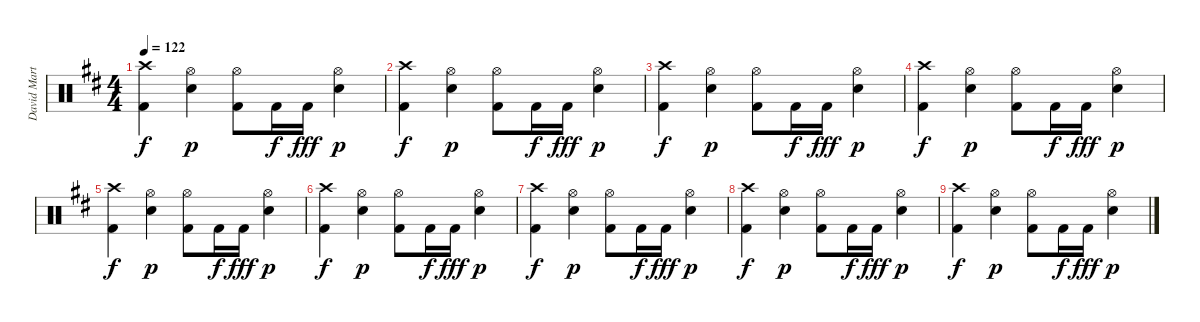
\track ("David Martinez" "David Mart") {instrument percussion}
\staff {score}
\articulation defaults
\ts (4 4)
\tempo 122
\clef neutral
\ks d
("Crash high (hit)" "Kick (hit) 2").4{dy f} ("Hi-Hat (open)" "Snare (hit) 2").4{dy p} ("Hi-Hat (open)" "Kick (hit) 2").8 "Kick (hit) 2".16{dy f} "Kick (hit) 2".16{dy fff} ("Hi-Hat (open)" "Snare (hit) 2").4{dy p} |
("Crash high (hit)" "Kick (hit) 2").4{dy f} ("Hi-Hat (open)" "Snare (hit) 2").4{dy p} ("Hi-Hat (open)" "Kick (hit) 2").8 "Kick (hit) 2".16{dy f} "Kick (hit) 2".16{dy fff} ("Hi-Hat (open)" "Snare (hit) 2").4{dy p} |
("Crash high (hit)" "Kick (hit) 2").4{dy f} ("Hi-Hat (open)" "Snare (hit) 2").4{dy p} ("Hi-Hat (open)" "Kick (hit) 2").8 "Kick (hit) 2".16{dy f} "Kick (hit) 2".16{dy fff} ("Hi-Hat (open)" "Snare (hit) 2").4{dy p} |
("Crash high (hit)" "Kick (hit) 2").4{dy f} ("Hi-Hat (open)" "Snare (hit) 2").4{dy p} ("Hi-Hat (open)" "Kick (hit) 2").8 "Kick (hit) 2".16{dy f} "Kick (hit) 2".16{dy fff} ("Hi-Hat (open)" "Snare (hit) 2").4{dy p} |
("Crash high (hit)" "Kick (hit) 2").4{dy f} ("Hi-Hat (open)" "Snare (hit) 2").4{dy p} ("Hi-Hat (open)" "Kick (hit) 2").8 "Kick (hit) 2".16{dy f} "Kick (hit) 2".16{dy fff} ("Hi-Hat (open)" "Snare (hit) 2").4{dy p} |
("Crash high (hit)" "Kick (hit) 2").4{dy f} ("Hi-Hat (open)" "Snare (hit) 2").4{dy p} ("Hi-Hat (open)" "Kick (hit) 2").8 "Kick (hit) 2".16{dy f} "Kick (hit) 2".16{dy fff} ("Hi-Hat (open)" "Snare (hit) 2").4{dy p} |
("Crash high (hit)" "Kick (hit) 2").4{dy f} ("Hi-Hat (open)" "Snare (hit) 2").4{dy p} ("Hi-Hat (open)" "Kick (hit) 2").8 "Kick (hit) 2".16{dy f} "Kick (hit) 2".16{dy fff} ("Hi-Hat (open)" "Snare (hit) 2").4{dy p} |
("Crash high (hit)" "Kick (hit) 2").4{dy f} ("Hi-Hat (open)" "Snare (hit) 2").4{dy p} ("Hi-Hat (open)" "Kick (hit) 2").8 "Kick (hit) 2".16{dy f} "Kick (hit) 2".16{dy fff} ("Hi-Hat (open)" "Snare (hit) 2").4{dy p} |
("Crash high (hit)" "Kick (hit) 2").4{dy f} ("Hi-Hat (open)" "Snare (hit) 2").4{dy p} ("Hi-Hat (open)" "Kick (hit) 2").8 "Kick (hit) 2".16{dy f} "Kick (hit) 2".16{dy fff} ("Hi-Hat (open)" "Snare (hit) 2").4{dy p}
